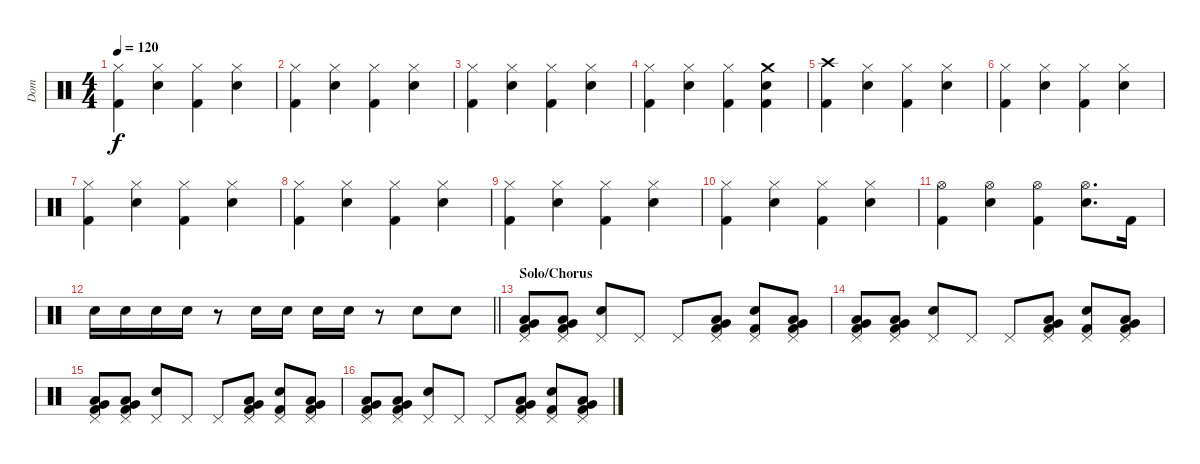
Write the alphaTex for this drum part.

\track ("Dom" "Dom") {instrument percussion}
\staff {score}
\articulation defaults
\ts (4 4)
\tempo 120
\clef neutral
\ks c
("Hi-Hat (closed)" "Kick (hit) 2").4{dy f} ("Hi-Hat (closed)" "Electric Snare (hit)").4 ("Hi-Hat (closed)" "Kick (hit) 2").4 ("Hi-Hat (closed)" "Electric Snare (hit)").4 |
("Hi-Hat (closed)" "Kick (hit) 2").4 ("Hi-Hat (closed)" "Electric Snare (hit)").4 ("Hi-Hat (closed)" "Kick (hit) 2").4 ("Hi-Hat (closed)" "Electric Snare (hit)").4 |
("Hi-Hat (closed)" "Kick (hit) 2").4 ("Hi-Hat (closed)" "Electric Snare (hit)").4 ("Hi-Hat (closed)" "Kick (hit) 2").4 ("Hi-Hat (closed)" "Electric Snare (hit)").4 |
("Hi-Hat (closed)" "Kick (hit) 2").4 ("Hi-Hat (closed)" "Electric Snare (hit)").4 ("Hi-Hat (closed)" "Kick (hit) 2").4 ("Crash medium (hit)" "Electric Snare (hit)" "Kick (hit) 2").4 |
("Crash high (hit)" "Kick (hit) 2").4 ("Hi-Hat (closed)" "Electric Snare (hit)").4 ("Hi-Hat (closed)" "Kick (hit) 2").4 ("Hi-Hat (closed)" "Electric Snare (hit)").4 |
("Hi-Hat (closed)" "Kick (hit) 2").4 ("Hi-Hat (closed)" "Electric Snare (hit)").4 ("Hi-Hat (closed)" "Kick (hit) 2").4 ("Hi-Hat (closed)" "Electric Snare (hit)").4 |
("Hi-Hat (closed)" "Kick (hit) 2").4 ("Hi-Hat (closed)" "Electric Snare (hit)").4 ("Hi-Hat (closed)" "Kick (hit) 2").4 ("Hi-Hat (closed)" "Electric Snare (hit)").4 |
("Hi-Hat (closed)" "Kick (hit) 2").4 ("Hi-Hat (closed)" "Electric Snare (hit)").4 ("Hi-Hat (closed)" "Kick (hit) 2").4 ("Hi-Hat (closed)" "Electric Snare (hit)").4 |
("Hi-Hat (closed)" "Kick (hit) 2").4 ("Hi-Hat (closed)" "Electric Snare (hit)").4 ("Hi-Hat (closed)" "Kick (hit) 2").4 ("Hi-Hat (closed)" "Electric Snare (hit)").4 |
("Hi-Hat (closed)" "Kick (hit) 2").4 ("Hi-Hat (closed)" "Electric Snare (hit)").4 ("Hi-Hat (closed)" "Kick (hit) 2").4 ("Hi-Hat (closed)" "Electric Snare (hit)").4 |
("Hi-Hat (open)" "Kick (hit) 2").4 ("Hi-Hat (open)" "Electric Snare (hit)").4 ("Hi-Hat (open)" "Kick (hit) 2").4 ("Hi-Hat (open)" "Electric Snare (hit)").8{d} "Kick (hit) 2".16 |
\barLineRight lightlight "Electric Snare (hit)".16 "Electric Snare (hit)".16 "Electric Snare (hit)".16 "Electric Snare (hit)".16
r.8 "Electric Snare (hit)".16 "Electric Snare (hit)".16 "Electric Snare (hit)".16 "Electric Snare (hit)".16 r.8 "Electric Snare (hit)".8 "Electric Snare (hit)".8 |
\section ("" "Solo/Chorus")
("Pedal Hi-Hat (hit)" "Very Low Tom (hit)" "Low Floor Tom (hit)" "Kick (hit) 2").8 ("Pedal Hi-Hat (hit)" "Very Low Tom (hit)" "Low Floor Tom (hit)" "Kick (hit) 2").8 ("Pedal Hi-Hat (hit)" "Electric Snare (hit)").8 "Pedal Hi-Hat (hit)".8 "Pedal Hi-Hat (hit)".8 ("Pedal Hi-Hat (hit)" "Very Low Tom (hit)" "Low Floor Tom (hit)" "Kick (hit) 2").8 ("Pedal Hi-Hat (hit)" "Electric Snare (hit)" "Kick (hit) 2").8 ("Pedal Hi-Hat (hit)" "Very Low Tom (hit)" "Low Floor Tom (hit)" "Kick (hit) 2").8 |
("Pedal Hi-Hat (hit)" "Very Low Tom (hit)" "Low Floor Tom (hit)" "Kick (hit) 2").8 ("Pedal Hi-Hat (hit)" "Very Low Tom (hit)" "Low Floor Tom (hit)" "Kick (hit) 2").8 ("Pedal Hi-Hat (hit)" "Electric Snare (hit)").8 "Pedal Hi-Hat (hit)".8 "Pedal Hi-Hat (hit)".8 ("Pedal Hi-Hat (hit)" "Very Low Tom (hit)" "Low Floor Tom (hit)" "Kick (hit) 2").8 ("Pedal Hi-Hat (hit)" "Electric Snare (hit)" "Kick (hit) 2").8 ("Pedal Hi-Hat (hit)" "Very Low Tom (hit)" "Low Floor Tom (hit)" "Kick (hit) 2").8 |
("Pedal Hi-Hat (hit)" "Very Low Tom (hit)" "Low Floor Tom (hit)" "Kick (hit) 2").8 ("Pedal Hi-Hat (hit)" "Very Low Tom (hit)" "Low Floor Tom (hit)" "Kick (hit) 2").8 ("Pedal Hi-Hat (hit)" "Electric Snare (hit)").8 "Pedal Hi-Hat (hit)".8 "Pedal Hi-Hat (hit)".8 ("Pedal Hi-Hat (hit)" "Very Low Tom (hit)" "Low Floor Tom (hit)" "Kick (hit) 2").8 ("Pedal Hi-Hat (hit)" "Electric Snare (hit)" "Kick (hit) 2").8 ("Pedal Hi-Hat (hit)" "Very Low Tom (hit)" "Low Floor Tom (hit)" "Kick (hit) 2").8 |
("Pedal Hi-Hat (hit)" "Very Low Tom (hit)" "Low Floor Tom (hit)" "Kick (hit) 2").8 ("Pedal Hi-Hat (hit)" "Very Low Tom (hit)" "Low Floor Tom (hit)" "Kick (hit) 2").8 ("Pedal Hi-Hat (hit)" "Electric Snare (hit)").8 "Pedal Hi-Hat (hit)".8 "Pedal Hi-Hat (hit)".8 ("Pedal Hi-Hat (hit)" "Very Low Tom (hit)" "Low Floor Tom (hit)" "Kick (hit) 2").8 ("Pedal Hi-Hat (hit)" "Electric Snare (hit)" "Kick (hit) 2").8 ("Pedal Hi-Hat (hit)" "Very Low Tom (hit)" "Low Floor Tom (hit)" "Kick (hit) 2").8
